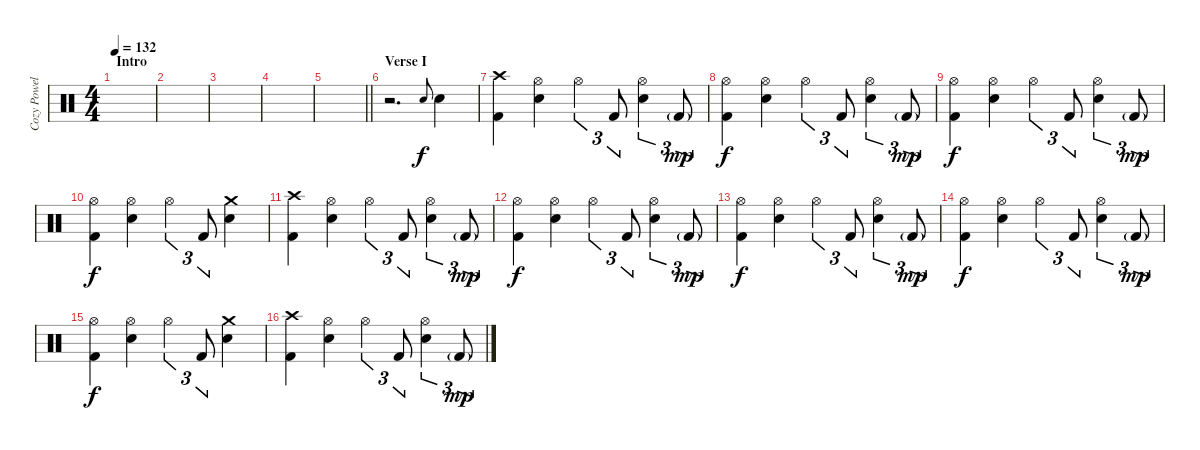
\track ("Cozy Powell" "Cozy Powel") {instrument percussion}
\staff {score}
\articulation defaults
\ts (4 4)
\section ("" "Intro")
\tempo 132
\clef neutral
\ks c
|
|
|
|
\barLineRight lightlight
|
\section ("" "Verse I")
r.2{d} "Snare (hit) 2".8{gr onbeat} "Snare (hit) 2".4 |
("Crash high (hit)" "Kick (hit) 2").4 ("Hi-Hat (open)" "Snare (hit) 2").4 "Hi-Hat (open)".4{tu (3 2)} "Kick (hit) 2".8{tu (3 2)} ("Hi-Hat (open)" "Snare (hit) 2").4{tu (3 2)} "Kick (hit) 2"{g}.8{tu (3 2) dy mp} |
("Hi-Hat (open)" "Kick (hit) 2").4{dy f} ("Hi-Hat (open)" "Snare (hit) 2").4 "Hi-Hat (open)".4{tu (3 2)} "Kick (hit) 2".8{tu (3 2)} ("Hi-Hat (open)" "Snare (hit) 2").4{tu (3 2)} "Kick (hit) 2"{g}.8{tu (3 2) dy mp} |
("Hi-Hat (open)" "Kick (hit) 2").4{dy f} ("Hi-Hat (open)" "Snare (hit) 2").4 "Hi-Hat (open)".4{tu (3 2)} "Kick (hit) 2".8{tu (3 2)} ("Hi-Hat (open)" "Snare (hit) 2").4{tu (3 2)} "Kick (hit) 2"{g}.8{tu (3 2) dy mp} |
("Hi-Hat (open)" "Kick (hit) 2").4{dy f} ("Hi-Hat (open)" "Snare (hit) 2").4 "Hi-Hat (open)".4{tu (3 2)} "Kick (hit) 2".8{tu (3 2)} ("Crash medium (hit)" "Snare (hit) 2").4 |
("Crash high (hit)" "Kick (hit) 2").4 ("Hi-Hat (open)" "Snare (hit) 2").4 "Hi-Hat (open)".4{tu (3 2)} "Kick (hit) 2".8{tu (3 2)} ("Hi-Hat (open)" "Snare (hit) 2").4{tu (3 2)} "Kick (hit) 2"{g}.8{tu (3 2) dy mp} |
("Hi-Hat (open)" "Kick (hit) 2").4{dy f} ("Hi-Hat (open)" "Snare (hit) 2").4 "Hi-Hat (open)".4{tu (3 2)} "Kick (hit) 2".8{tu (3 2)} ("Hi-Hat (open)" "Snare (hit) 2").4{tu (3 2)} "Kick (hit) 2"{g}.8{tu (3 2) dy mp} |
("Hi-Hat (open)" "Kick (hit) 2").4{dy f} ("Hi-Hat (open)" "Snare (hit) 2").4 "Hi-Hat (open)".4{tu (3 2)} "Kick (hit) 2".8{tu (3 2)} ("Hi-Hat (open)" "Snare (hit) 2").4{tu (3 2)} "Kick (hit) 2"{g}.8{tu (3 2) dy mp} |
("Hi-Hat (open)" "Kick (hit) 2").4{dy f} ("Hi-Hat (open)" "Snare (hit) 2").4 "Hi-Hat (open)".4{tu (3 2)} "Kick (hit) 2".8{tu (3 2)} ("Hi-Hat (open)" "Snare (hit) 2").4{tu (3 2)} "Kick (hit) 2"{g}.8{tu (3 2) dy mp} |
("Hi-Hat (open)" "Kick (hit) 2").4{dy f} ("Hi-Hat (open)" "Snare (hit) 2").4 "Hi-Hat (open)".4{tu (3 2)} "Kick (hit) 2".8{tu (3 2)} ("Crash medium (hit)" "Snare (hit) 2").4 |
("Crash high (hit)" "Kick (hit) 2").4 ("Hi-Hat (open)" "Snare (hit) 2").4 "Hi-Hat (open)".4{tu (3 2)} "Kick (hit) 2".8{tu (3 2)} ("Hi-Hat (open)" "Snare (hit) 2").4{tu (3 2)} "Kick (hit) 2"{g}.8{tu (3 2) dy mp}
